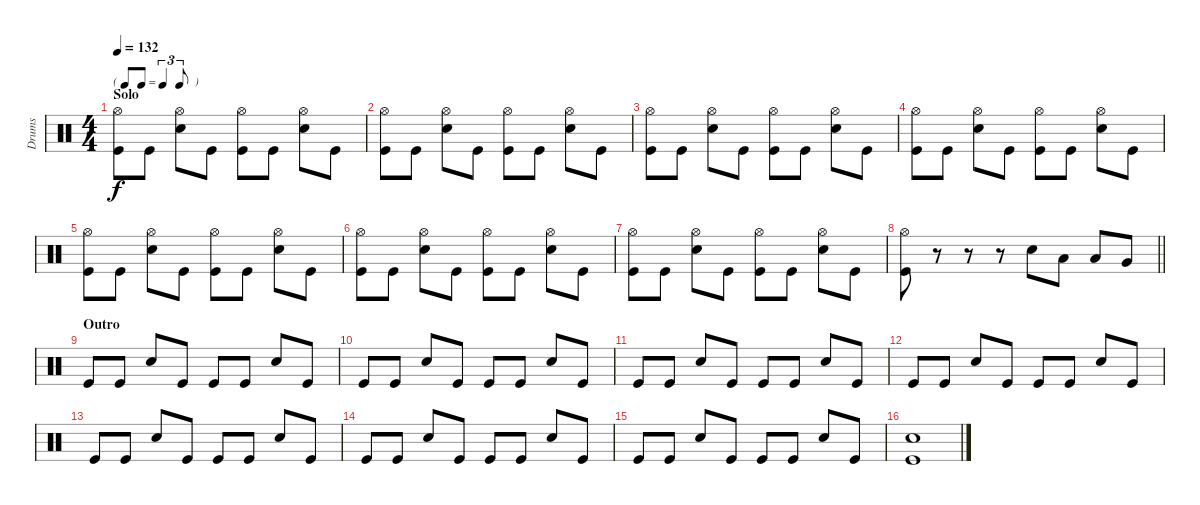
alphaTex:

\track ("Drums" "Drums") {instrument percussion}
\staff {score}
\articulation defaults
\ts (4 4)
\tf triplet8th
\section ("" "Solo")
\tempo 132
\clef neutral
\ks c
("Hi-Hat (open)" "Kick (hit)").8{dy f} "Kick (hit)".8 ("Hi-Hat (open)" "Snare (hit) 2").8 "Kick (hit)".8 ("Hi-Hat (open)" "Kick (hit)").8 "Kick (hit)".8 ("Hi-Hat (open)" "Snare (hit) 2").8 "Kick (hit)".8 |
("Hi-Hat (open)" "Kick (hit)").8 "Kick (hit)".8 ("Hi-Hat (open)" "Snare (hit) 2").8 "Kick (hit)".8 ("Hi-Hat (open)" "Kick (hit)").8 "Kick (hit)".8 ("Hi-Hat (open)" "Snare (hit) 2").8 "Kick (hit)".8 |
("Hi-Hat (open)" "Kick (hit)").8 "Kick (hit)".8 ("Hi-Hat (open)" "Snare (hit) 2").8 "Kick (hit)".8 ("Hi-Hat (open)" "Kick (hit)").8 "Kick (hit)".8 ("Hi-Hat (open)" "Snare (hit) 2").8 "Kick (hit)".8 |
("Hi-Hat (open)" "Kick (hit)").8 "Kick (hit)".8 ("Hi-Hat (open)" "Snare (hit) 2").8 "Kick (hit)".8 ("Hi-Hat (open)" "Kick (hit)").8 "Kick (hit)".8 ("Hi-Hat (open)" "Snare (hit) 2").8 "Kick (hit)".8 |
("Hi-Hat (open)" "Kick (hit)").8 "Kick (hit)".8 ("Hi-Hat (open)" "Snare (hit) 2").8 "Kick (hit)".8 ("Hi-Hat (open)" "Kick (hit)").8 "Kick (hit)".8 ("Hi-Hat (open)" "Snare (hit) 2").8 "Kick (hit)".8 |
("Hi-Hat (open)" "Kick (hit)").8 "Kick (hit)".8 ("Hi-Hat (open)" "Snare (hit) 2").8 "Kick (hit)".8 ("Hi-Hat (open)" "Kick (hit)").8 "Kick (hit)".8 ("Hi-Hat (open)" "Snare (hit) 2").8 "Kick (hit)".8 |
("Hi-Hat (open)" "Kick (hit)").8 "Kick (hit)".8 ("Hi-Hat (open)" "Snare (hit) 2").8 "Kick (hit)".8 ("Hi-Hat (open)" "Kick (hit)").8 "Kick (hit)".8 ("Hi-Hat (open)" "Snare (hit) 2").8 "Kick (hit)".8 |
\barLineRight lightlight
("Hi-Hat (open)" "Kick (hit)").8 r.8 r.8 r.8 "Snare (hit) 2".8 "Low Tom (hit)".8 "Low Tom (hit)".8 "Very Low Tom (hit)".8 |
\section ("" "Outro")
"Kick (hit)".8 "Kick (hit)".8 "Snare (hit) 2".8 "Kick (hit)".8 "Kick (hit)".8 "Kick (hit)".8 "Snare (hit) 2".8 "Kick (hit)".8 |
"Kick (hit)".8 "Kick (hit)".8 "Snare (hit) 2".8 "Kick (hit)".8 "Kick (hit)".8 "Kick (hit)".8 "Snare (hit) 2".8 "Kick (hit)".8 |
"Kick (hit)".8 "Kick (hit)".8 "Snare (hit) 2".8 "Kick (hit)".8 "Kick (hit)".8 "Kick (hit)".8 "Snare (hit) 2".8 "Kick (hit)".8 |
"Kick (hit)".8 "Kick (hit)".8 "Snare (hit) 2".8 "Kick (hit)".8 "Kick (hit)".8 "Kick (hit)".8 "Snare (hit) 2".8 "Kick (hit)".8 |
"Kick (hit)".8 "Kick (hit)".8 "Snare (hit) 2".8 "Kick (hit)".8 "Kick (hit)".8 "Kick (hit)".8 "Snare (hit) 2".8 "Kick (hit)".8 |
"Kick (hit)".8 "Kick (hit)".8 "Snare (hit) 2".8 "Kick (hit)".8 "Kick (hit)".8 "Kick (hit)".8 "Snare (hit) 2".8 "Kick (hit)".8 |
"Kick (hit)".8 "Kick (hit)".8 "Snare (hit) 2".8 "Kick (hit)".8 "Kick (hit)".8 "Kick (hit)".8 "Snare (hit) 2".8 "Kick (hit)".8 |
("Snare (hit) 2" "Kick (hit)").1
